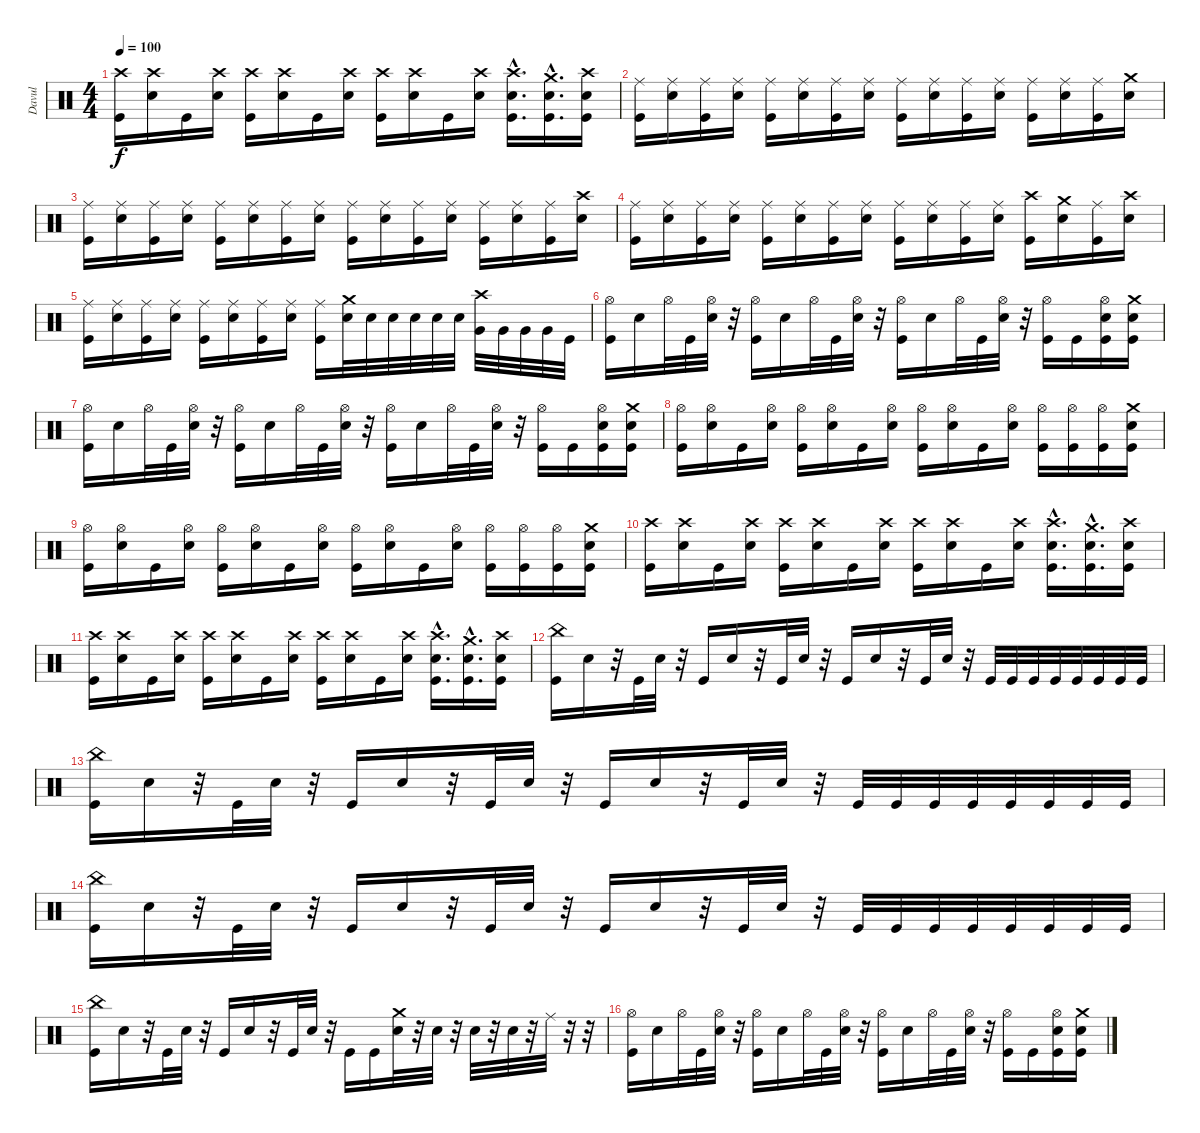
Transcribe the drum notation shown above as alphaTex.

\track ("Davul" "Davul") {instrument percussion}
\staff {score}
\articulation defaults
\ts (4 4)
\tempo 100
\clef neutral
\ks c
("Crash high (hit)" "Kick (hit)").16{dy f} ("Crash high (hit)" "Electric Snare (hit)").16 "Kick (hit)".16 ("Crash high (hit)" "Electric Snare (hit)").16 ("Crash high (hit)" "Kick (hit)").16 ("Crash high (hit)" "Electric Snare (hit)").16 "Kick (hit)".16 ("Crash high (hit)" "Electric Snare (hit)").16 ("Crash high (hit)" "Kick (hit)").16 ("Crash high (hit)" "Electric Snare (hit)").16 "Kick (hit)".16 ("Crash high (hit)" "Electric Snare (hit)").16 ("Crash high (hit)"{hac} "Electric Snare (hit)"{hac} "Kick (hit)"{hac}).16{d} ("Crash medium (hit)"{hac} "Electric Snare (hit)"{hac} "Kick (hit)"{hac}).16{d} ("Crash high (hit)" "Electric Snare (hit)" "Kick (hit)").16 |
("Ride (middle)" "Kick (hit)").16 ("Ride (middle)" "Electric Snare (hit)").16 ("Ride (middle)" "Kick (hit)").16 ("Ride (middle)" "Electric Snare (hit)").16 ("Ride (middle)" "Kick (hit)").16 ("Ride (middle)" "Electric Snare (hit)").16 ("Ride (middle)" "Kick (hit)").16 ("Ride (middle)" "Electric Snare (hit)").16 ("Ride (middle)" "Kick (hit)").16 ("Ride (middle)" "Electric Snare (hit)").16 ("Ride (middle)" "Kick (hit)").16 ("Ride (middle)" "Electric Snare (hit)").16 ("Ride (middle)" "Kick (hit)").16 ("Ride (middle)" "Electric Snare (hit)").16 ("Ride (middle)" "Kick (hit)").16 ("Crash medium (hit)" "Electric Snare (hit)").16 |
("Ride (middle)" "Kick (hit)").16 ("Ride (middle)" "Electric Snare (hit)").16 ("Ride (middle)" "Kick (hit)").16 ("Ride (middle)" "Electric Snare (hit)").16 ("Ride (middle)" "Kick (hit)").16 ("Ride (middle)" "Electric Snare (hit)").16 ("Ride (middle)" "Kick (hit)").16 ("Ride (middle)" "Electric Snare (hit)").16 ("Ride (middle)" "Kick (hit)").16 ("Ride (middle)" "Electric Snare (hit)").16 ("Ride (middle)" "Kick (hit)").16 ("Ride (middle)" "Electric Snare (hit)").16 ("Ride (middle)" "Kick (hit)").16 ("Ride (middle)" "Electric Snare (hit)").16 ("Ride (middle)" "Kick (hit)").16 ("Crash high (hit)" "Electric Snare (hit)").16 |
("Ride (middle)" "Kick (hit)").16 ("Ride (middle)" "Electric Snare (hit)").16 ("Ride (middle)" "Kick (hit)").16 ("Ride (middle)" "Electric Snare (hit)").16 ("Ride (middle)" "Kick (hit)").16 ("Ride (middle)" "Electric Snare (hit)").16 ("Ride (middle)" "Kick (hit)").16 ("Ride (middle)" "Electric Snare (hit)").16 ("Ride (middle)" "Kick (hit)").16 ("Ride (middle)" "Electric Snare (hit)").16 ("Ride (middle)" "Kick (hit)").16 ("Ride (middle)" "Electric Snare (hit)").16 ("Crash high (hit)" "Kick (hit)").16 ("Crash medium (hit)" "Electric Snare (hit)").16 ("Ride (middle)" "Kick (hit)").16 ("Crash high (hit)" "Electric Snare (hit)").16 |
("Ride (middle)" "Kick (hit)").16 ("Ride (middle)" "Electric Snare (hit)").16 ("Ride (middle)" "Kick (hit)").16 ("Ride (middle)" "Electric Snare (hit)").16 ("Ride (middle)" "Kick (hit)").16 ("Ride (middle)" "Electric Snare (hit)").16 ("Ride (middle)" "Kick (hit)").16 ("Ride (middle)" "Electric Snare (hit)").16 ("Ride (middle)" "Kick (hit)").16 ("Crash medium (hit)" "Electric Snare (hit)").32 "Electric Snare (hit)".32 "Electric Snare (hit)".32 "Electric Snare (hit)".32 "Electric Snare (hit)".32 "Electric Snare (hit)".32 ("Crash high (hit)" "Very Low Tom (hit)").32 "Very Low Tom (hit)".32 "Very Low Tom (hit)".32 "Very Low Tom (hit)".32 "Kick (hit)".32 |
("Hi-Hat (open)" "Kick (hit)").16 "Electric Snare (hit)".16 "Hi-Hat (open)".32 "Kick (hit)".32 ("Hi-Hat (open)" "Electric Snare (hit)").32 r.32 ("Hi-Hat (open)" "Kick (hit)").16 "Electric Snare (hit)".16 "Hi-Hat (open)".32 "Kick (hit)".32 ("Hi-Hat (open)" "Electric Snare (hit)").32 r.32 ("Hi-Hat (open)" "Kick (hit)").16 "Electric Snare (hit)".16 "Hi-Hat (open)".32 "Kick (hit)".32 ("Hi-Hat (open)" "Electric Snare (hit)").32 r.32 ("Hi-Hat (open)" "Kick (hit)").16 "Kick (hit)".16 ("Hi-Hat (open)" "Electric Snare (hit)" "Kick (hit)").16 ("Crash medium (hit)" "Electric Snare (hit)" "Kick (hit)").16 |
("Hi-Hat (open)" "Kick (hit)").16 "Electric Snare (hit)".16 "Hi-Hat (open)".32 "Kick (hit)".32 ("Hi-Hat (open)" "Electric Snare (hit)").32 r.32 ("Hi-Hat (open)" "Kick (hit)").16 "Electric Snare (hit)".16 "Hi-Hat (open)".32 "Kick (hit)".32 ("Hi-Hat (open)" "Electric Snare (hit)").32 r.32 ("Hi-Hat (open)" "Kick (hit)").16 "Electric Snare (hit)".16 "Hi-Hat (open)".32 "Kick (hit)".32 ("Hi-Hat (open)" "Electric Snare (hit)").32 r.32 ("Hi-Hat (open)" "Kick (hit)").16 "Kick (hit)".16 ("Hi-Hat (open)" "Electric Snare (hit)" "Kick (hit)").16 ("Crash medium (hit)" "Electric Snare (hit)" "Kick (hit)").16 |
("Hi-Hat (open)" "Kick (hit)").16 ("Hi-Hat (open)" "Electric Snare (hit)").16 "Kick (hit)".16 ("Hi-Hat (open)" "Electric Snare (hit)").16 ("Hi-Hat (open)" "Kick (hit)").16 ("Hi-Hat (open)" "Electric Snare (hit)").16 "Kick (hit)".16 ("Hi-Hat (open)" "Electric Snare (hit)").16 ("Hi-Hat (open)" "Kick (hit)").16 ("Hi-Hat (open)" "Electric Snare (hit)").16 "Kick (hit)".16 ("Hi-Hat (open)" "Electric Snare (hit)").16 ("Hi-Hat (open)" "Kick (hit)").16 ("Hi-Hat (open)" "Kick (hit)").16 ("Hi-Hat (open)" "Kick (hit)").16 ("Crash medium (hit)" "Electric Snare (hit)" "Kick (hit)").16 |
("Hi-Hat (open)" "Kick (hit)").16 ("Hi-Hat (open)" "Electric Snare (hit)").16 "Kick (hit)".16 ("Hi-Hat (open)" "Electric Snare (hit)").16 ("Hi-Hat (open)" "Kick (hit)").16 ("Hi-Hat (open)" "Electric Snare (hit)").16 "Kick (hit)".16 ("Hi-Hat (open)" "Electric Snare (hit)").16 ("Hi-Hat (open)" "Kick (hit)").16 ("Hi-Hat (open)" "Electric Snare (hit)").16 "Kick (hit)".16 ("Hi-Hat (open)" "Electric Snare (hit)").16 ("Hi-Hat (open)" "Kick (hit)").16 ("Hi-Hat (open)" "Kick (hit)").16 ("Hi-Hat (open)" "Kick (hit)").16 ("Crash medium (hit)" "Electric Snare (hit)" "Kick (hit)").16 |
("Crash high (hit)" "Kick (hit)").16 ("Crash high (hit)" "Electric Snare (hit)").16 "Kick (hit)".16 ("Crash high (hit)" "Electric Snare (hit)").16 ("Crash high (hit)" "Kick (hit)").16 ("Crash high (hit)" "Electric Snare (hit)").16 "Kick (hit)".16 ("Crash high (hit)" "Electric Snare (hit)").16 ("Crash high (hit)" "Kick (hit)").16 ("Crash high (hit)" "Electric Snare (hit)").16 "Kick (hit)".16 ("Crash high (hit)" "Electric Snare (hit)").16 ("Crash high (hit)"{hac} "Electric Snare (hit)"{hac} "Kick (hit)"{hac}).16{d} ("Crash medium (hit)"{hac} "Electric Snare (hit)"{hac} "Kick (hit)"{hac}).16{d} ("Crash high (hit)" "Electric Snare (hit)" "Kick (hit)").16 |
("Crash high (hit)" "Kick (hit)").16 ("Crash high (hit)" "Electric Snare (hit)").16 "Kick (hit)".16 ("Crash high (hit)" "Electric Snare (hit)").16 ("Crash high (hit)" "Kick (hit)").16 ("Crash high (hit)" "Electric Snare (hit)").16 "Kick (hit)".16 ("Crash high (hit)" "Electric Snare (hit)").16 ("Crash high (hit)" "Kick (hit)").16 ("Crash high (hit)" "Electric Snare (hit)").16 "Kick (hit)".16 ("Crash high (hit)" "Electric Snare (hit)").16 ("Crash high (hit)"{hac} "Electric Snare (hit)"{hac} "Kick (hit)"{hac}).16{d} ("Crash medium (hit)"{hac} "Electric Snare (hit)"{hac} "Kick (hit)"{hac}).16{d} ("Crash high (hit)" "Electric Snare (hit)" "Kick (hit)").16 |
("China (hit)" "Kick (hit)").16 "Electric Snare (hit)".16 r.32 "Kick (hit)".32 "Electric Snare (hit)".32 r.32 "Kick (hit)".16 "Electric Snare (hit)".16 r.32 "Kick (hit)".32 "Electric Snare (hit)".32 r.32 "Kick (hit)".16 "Electric Snare (hit)".16 r.32 "Kick (hit)".32 "Electric Snare (hit)".32 r.32 "Kick (hit)".32 "Kick (hit)".32 "Kick (hit)".32 "Kick (hit)".32 "Kick (hit)".32 "Kick (hit)".32 "Kick (hit)".32 "Kick (hit)".32 |
("China (hit)" "Kick (hit)").16 "Electric Snare (hit)".16 r.32 "Kick (hit)".32 "Electric Snare (hit)".32 r.32 "Kick (hit)".16 "Electric Snare (hit)".16 r.32 "Kick (hit)".32 "Electric Snare (hit)".32 r.32 "Kick (hit)".16 "Electric Snare (hit)".16 r.32 "Kick (hit)".32 "Electric Snare (hit)".32 r.32 "Kick (hit)".32 "Kick (hit)".32 "Kick (hit)".32 "Kick (hit)".32 "Kick (hit)".32 "Kick (hit)".32 "Kick (hit)".32 "Kick (hit)".32 |
("China (hit)" "Kick (hit)").16 "Electric Snare (hit)".16 r.32 "Kick (hit)".32 "Electric Snare (hit)".32 r.32 "Kick (hit)".16 "Electric Snare (hit)".16 r.32 "Kick (hit)".32 "Electric Snare (hit)".32 r.32 "Kick (hit)".16 "Electric Snare (hit)".16 r.32 "Kick (hit)".32 "Electric Snare (hit)".32 r.32 "Kick (hit)".32 "Kick (hit)".32 "Kick (hit)".32 "Kick (hit)".32 "Kick (hit)".32 "Kick (hit)".32 "Kick (hit)".32 "Kick (hit)".32 |
("China (hit)" "Kick (hit)").16 "Electric Snare (hit)".16 r.32 "Kick (hit)".32 "Electric Snare (hit)".32 r.32 "Kick (hit)".16 "Electric Snare (hit)".16 r.32 "Kick (hit)".32 "Electric Snare (hit)".32 r.32 "Kick (hit)".16 "Kick (hit)".16 ("Crash medium (hit)" "Electric Snare (hit)").32 r.32 "Electric Snare (hit)".32 r.32 "Electric Snare (hit)".32 r.32 "Electric Snare (hit)".32 r.32 "Ride (middle)".32 r.32 r.32 |
("Hi-Hat (open)" "Kick (hit)").16 "Electric Snare (hit)".16 "Hi-Hat (open)".32 "Kick (hit)".32 ("Hi-Hat (open)" "Electric Snare (hit)").32 r.32 ("Hi-Hat (open)" "Kick (hit)").16 "Electric Snare (hit)".16 "Hi-Hat (open)".32 "Kick (hit)".32 ("Hi-Hat (open)" "Electric Snare (hit)").32 r.32 ("Hi-Hat (open)" "Kick (hit)").16 "Electric Snare (hit)".16 "Hi-Hat (open)".32 "Kick (hit)".32 ("Hi-Hat (open)" "Electric Snare (hit)").32 r.32 ("Hi-Hat (open)" "Kick (hit)").16 "Kick (hit)".16 ("Hi-Hat (open)" "Electric Snare (hit)" "Kick (hit)").16 ("Crash medium (hit)" "Electric Snare (hit)" "Kick (hit)").16
